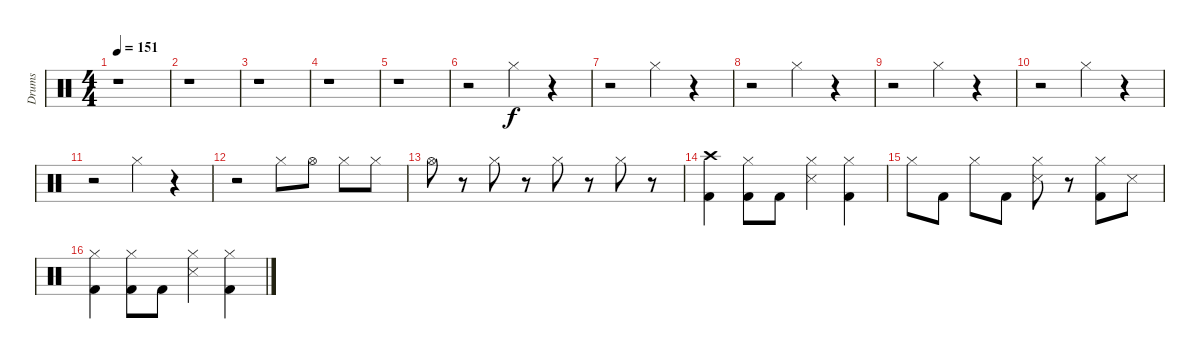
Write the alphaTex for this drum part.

\track ("Drums" "Drums") {instrument percussion}
\staff {score}
\articulation defaults
\ts (4 4)
\tempo 151
\clef neutral
\ks c
r.1{dy f} |
r.1 |
r.1 |
r.1 |
r.1 |
r.2 "Hi-Hat (closed)".4 r.4 |
r.2 "Hi-Hat (closed)".4 r.4 |
r.2 "Hi-Hat (closed)".4 r.4 |
r.2 "Hi-Hat (closed)".4 r.4 |
r.2 "Hi-Hat (closed)".4 r.4 |
r.2 "Hi-Hat (closed)".4 r.4 |
r.2 "Hi-Hat (closed)".8 "Hi-Hat (open)".8 "Hi-Hat (closed)".8 "Hi-Hat (closed)".8 |
"Hi-Hat (open)".8 r.8 "Hi-Hat (closed)".8 r.8 "Hi-Hat (closed)".8 r.8 "Hi-Hat (closed)".8 r.8 |
("Kick (hit) 2" "Crash high (hit)").4 ("Kick (hit) 2" "Hi-Hat (closed)").8 "Kick (hit) 2".8 ("Metronome (hit)" "Hi-Hat (closed)").4 ("Kick (hit) 2" "Hi-Hat (closed)").4 |
"Hi-Hat (closed)".8 "Kick (hit) 2".8 "Hi-Hat (closed)".8 "Kick (hit) 2".8 ("Metronome (hit)" "Hi-Hat (closed)").8 r.8 ("Kick (hit) 2" "Hi-Hat (closed)").8 "Metronome (hit)".8 |
("Kick (hit) 2" "Hi-Hat (closed)").4 ("Kick (hit) 2" "Hi-Hat (closed)").8 "Kick (hit) 2".8 ("Metronome (hit)" "Hi-Hat (closed)").4 ("Kick (hit) 2" "Hi-Hat (closed)").4
